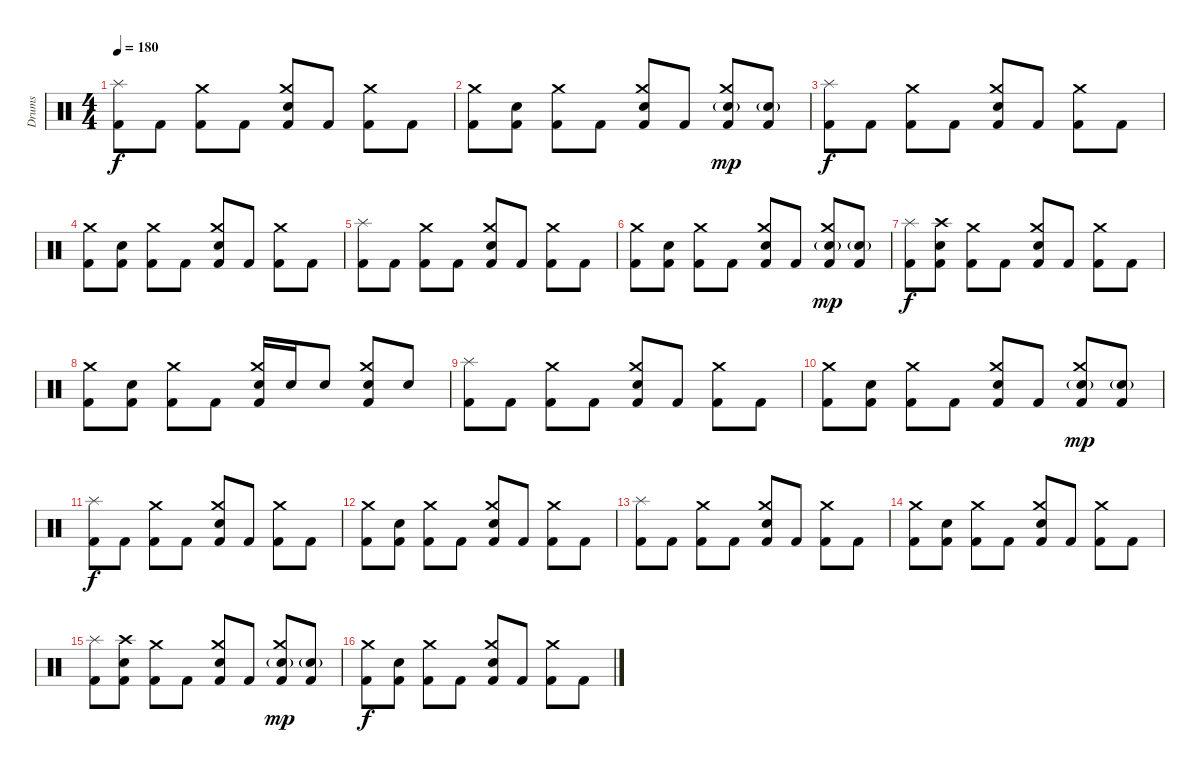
\track ("Drums" "Drums") {instrument percussion}
\staff {score}
\articulation defaults
\ts (4 4)
\tempo 180
\clef neutral
\ks c
("Splash (hit)" "Kick (hit) 2").8{dy f} "Kick (hit) 2".8 ("Crash medium (hit)" "Kick (hit) 2").8 "Kick (hit) 2".8 ("Crash medium (hit)" "Snare (hit) 2" "Kick (hit) 2").8 "Kick (hit) 2".8 ("Crash medium (hit)" "Kick (hit) 2").8 "Kick (hit) 2".8 |
("Crash medium (hit)" "Kick (hit) 2").8 ("Snare (hit) 2" "Kick (hit) 2").8 ("Crash medium (hit)" "Kick (hit) 2").8 "Kick (hit) 2".8 ("Crash medium (hit)" "Snare (hit) 2" "Kick (hit) 2").8 "Kick (hit) 2".8 ("Crash medium (hit)" "Snare (hit) 2"{g} "Kick (hit) 2").8{dy mp} ("Snare (hit) 2"{g} "Kick (hit) 2").8 |
("Splash (hit)" "Kick (hit) 2").8{dy f} "Kick (hit) 2".8 ("Crash medium (hit)" "Kick (hit) 2").8 "Kick (hit) 2".8 ("Crash medium (hit)" "Snare (hit) 2" "Kick (hit) 2").8 "Kick (hit) 2".8 ("Crash medium (hit)" "Kick (hit) 2").8 "Kick (hit) 2".8 |
("Crash medium (hit)" "Kick (hit) 2").8 ("Snare (hit) 2" "Kick (hit) 2").8 ("Crash medium (hit)" "Kick (hit) 2").8 "Kick (hit) 2".8 ("Crash medium (hit)" "Snare (hit) 2" "Kick (hit) 2").8 "Kick (hit) 2".8 ("Crash medium (hit)" "Kick (hit) 2").8 "Kick (hit) 2".8 |
("Splash (hit)" "Kick (hit) 2").8 "Kick (hit) 2".8 ("Crash medium (hit)" "Kick (hit) 2").8 "Kick (hit) 2".8 ("Crash medium (hit)" "Snare (hit) 2" "Kick (hit) 2").8 "Kick (hit) 2".8 ("Crash medium (hit)" "Kick (hit) 2").8 "Kick (hit) 2".8 |
("Crash medium (hit)" "Kick (hit) 2").8 ("Snare (hit) 2" "Kick (hit) 2").8 ("Crash medium (hit)" "Kick (hit) 2").8 "Kick (hit) 2".8 ("Crash medium (hit)" "Snare (hit) 2" "Kick (hit) 2").8 "Kick (hit) 2".8 ("Crash medium (hit)" "Snare (hit) 2"{g} "Kick (hit) 2").8{dy mp} ("Snare (hit) 2"{g} "Kick (hit) 2").8 |
("Splash (hit)" "Kick (hit) 2").8{dy f} ("Crash high (hit)" "Snare (hit) 2" "Kick (hit) 2").8 ("Crash medium (hit)" "Kick (hit) 2").8 "Kick (hit) 2".8 ("Crash medium (hit)" "Snare (hit) 2" "Kick (hit) 2").8 "Kick (hit) 2".8 ("Crash medium (hit)" "Kick (hit) 2").8 "Kick (hit) 2".8 |
("Crash medium (hit)" "Kick (hit) 2").8 ("Snare (hit) 2" "Kick (hit) 2").8 ("Crash medium (hit)" "Kick (hit) 2").8 "Kick (hit) 2".8 ("Crash medium (hit)" "Snare (hit) 2" "Kick (hit) 2").16 "Snare (hit) 2".16 "Snare (hit) 2".8 ("Crash medium (hit)" "Snare (hit) 2" "Kick (hit) 2").8 "Snare (hit) 2".8 |
("Splash (hit)" "Kick (hit) 2").8 "Kick (hit) 2".8 ("Crash medium (hit)" "Kick (hit) 2").8 "Kick (hit) 2".8 ("Crash medium (hit)" "Snare (hit) 2" "Kick (hit) 2").8 "Kick (hit) 2".8 ("Crash medium (hit)" "Kick (hit) 2").8 "Kick (hit) 2".8 |
("Crash medium (hit)" "Kick (hit) 2").8 ("Snare (hit) 2" "Kick (hit) 2").8 ("Crash medium (hit)" "Kick (hit) 2").8 "Kick (hit) 2".8 ("Crash medium (hit)" "Snare (hit) 2" "Kick (hit) 2").8 "Kick (hit) 2".8 ("Crash medium (hit)" "Snare (hit) 2"{g} "Kick (hit) 2").8{dy mp} ("Snare (hit) 2"{g} "Kick (hit) 2").8 |
("Splash (hit)" "Kick (hit) 2").8{dy f} "Kick (hit) 2".8 ("Crash medium (hit)" "Kick (hit) 2").8 "Kick (hit) 2".8 ("Crash medium (hit)" "Snare (hit) 2" "Kick (hit) 2").8 "Kick (hit) 2".8 ("Crash medium (hit)" "Kick (hit) 2").8 "Kick (hit) 2".8 |
("Crash medium (hit)" "Kick (hit) 2").8 ("Snare (hit) 2" "Kick (hit) 2").8 ("Crash medium (hit)" "Kick (hit) 2").8 "Kick (hit) 2".8 ("Crash medium (hit)" "Snare (hit) 2" "Kick (hit) 2").8 "Kick (hit) 2".8 ("Crash medium (hit)" "Kick (hit) 2").8 "Kick (hit) 2".8 |
("Splash (hit)" "Kick (hit) 2").8 "Kick (hit) 2".8 ("Crash medium (hit)" "Kick (hit) 2").8 "Kick (hit) 2".8 ("Crash medium (hit)" "Snare (hit) 2" "Kick (hit) 2").8 "Kick (hit) 2".8 ("Crash medium (hit)" "Kick (hit) 2").8 "Kick (hit) 2".8 |
("Crash medium (hit)" "Kick (hit) 2").8 ("Snare (hit) 2" "Kick (hit) 2").8 ("Crash medium (hit)" "Kick (hit) 2").8 "Kick (hit) 2".8 ("Crash medium (hit)" "Snare (hit) 2" "Kick (hit) 2").8 "Kick (hit) 2".8 ("Crash medium (hit)" "Kick (hit) 2").8 "Kick (hit) 2".8 |
("Splash (hit)" "Kick (hit) 2").8 ("Crash high (hit)" "Snare (hit) 2" "Kick (hit) 2").8 ("Crash medium (hit)" "Kick (hit) 2").8 "Kick (hit) 2".8 ("Crash medium (hit)" "Snare (hit) 2" "Kick (hit) 2").8 "Kick (hit) 2".8 ("Crash medium (hit)" "Snare (hit) 2"{g} "Kick (hit) 2").8{dy mp} ("Snare (hit) 2"{g} "Kick (hit) 2").8 |
("Crash medium (hit)" "Kick (hit) 2").8{dy f} ("Snare (hit) 2" "Kick (hit) 2").8 ("Crash medium (hit)" "Kick (hit) 2").8 "Kick (hit) 2".8 ("Crash medium (hit)" "Snare (hit) 2" "Kick (hit) 2").8 "Kick (hit) 2".8 ("Crash medium (hit)" "Kick (hit) 2").8 "Kick (hit) 2".8
